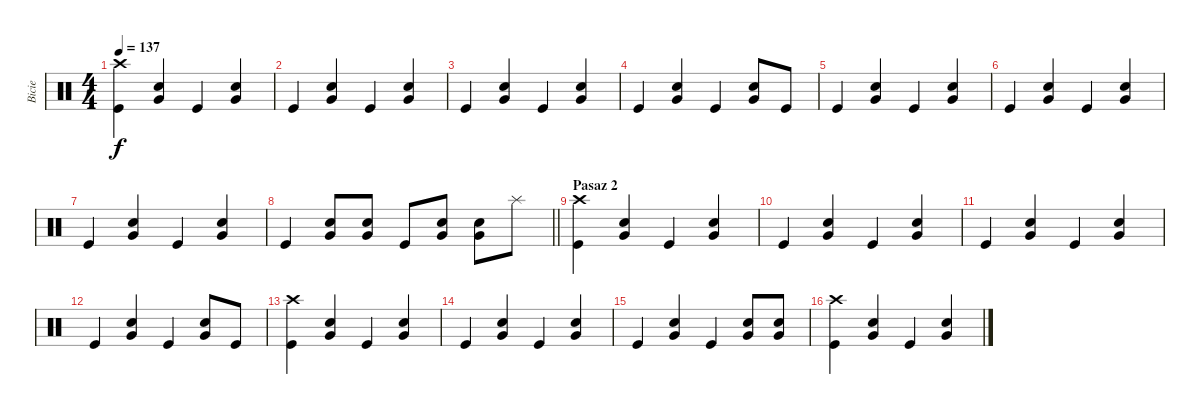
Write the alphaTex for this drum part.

\track ("Bicie" "Bicie") {instrument percussion}
\staff {score}
\articulation defaults
\ts (4 4)
\tempo 137
\clef neutral
\ks c
("Crash high (hit)" "Kick (hit)").4{dy f} ("Very Low Tom (hit)" "Snare (hit) 2").4 "Kick (hit)".4 ("Very Low Tom (hit)" "Snare (hit) 2").4 |
"Kick (hit)".4 ("Very Low Tom (hit)" "Snare (hit) 2").4 "Kick (hit)".4 ("Very Low Tom (hit)" "Snare (hit) 2").4 |
"Kick (hit)".4 ("Very Low Tom (hit)" "Snare (hit) 2").4 "Kick (hit)".4 ("Very Low Tom (hit)" "Snare (hit) 2").4 |
"Kick (hit)".4 ("Very Low Tom (hit)" "Snare (hit) 2").4 "Kick (hit)".4 ("Very Low Tom (hit)" "Snare (hit) 2").8 "Kick (hit)".8 |
"Kick (hit)".4 ("Very Low Tom (hit)" "Snare (hit) 2").4 "Kick (hit)".4 ("Very Low Tom (hit)" "Snare (hit) 2").4 |
"Kick (hit)".4 ("Very Low Tom (hit)" "Snare (hit) 2").4 "Kick (hit)".4 ("Very Low Tom (hit)" "Snare (hit) 2").4 |
"Kick (hit)".4 ("Very Low Tom (hit)" "Snare (hit) 2").4 "Kick (hit)".4 ("Very Low Tom (hit)" "Snare (hit) 2").4 |
\barLineRight lightlight "Kick (hit)".4
("Very Low Tom (hit)" "Snare (hit) 2").8 ("Very Low Tom (hit)" "Snare (hit) 2").8 "Kick (hit)".8 ("Very Low Tom (hit)" "Snare (hit) 2").8 ("Very Low Tom (hit)" "Snare (hit) 2").8 "Splash (hit)".8 |
\section ("" "Pasaz 2")
("Crash high (hit)" "Kick (hit)").4 ("Very Low Tom (hit)" "Snare (hit) 2").4 "Kick (hit)".4 ("Very Low Tom (hit)" "Snare (hit) 2").4 |
"Kick (hit)".4 ("Very Low Tom (hit)" "Snare (hit) 2").4 "Kick (hit)".4 ("Very Low Tom (hit)" "Snare (hit) 2").4 |
"Kick (hit)".4 ("Very Low Tom (hit)" "Snare (hit) 2").4 "Kick (hit)".4 ("Very Low Tom (hit)" "Snare (hit) 2").4 |
"Kick (hit)".4 ("Very Low Tom (hit)" "Snare (hit) 2").4 "Kick (hit)".4 ("Very Low Tom (hit)" "Snare (hit) 2").8 "Kick (hit)".8 |
("Crash high (hit)" "Kick (hit)").4 ("Very Low Tom (hit)" "Snare (hit) 2").4 "Kick (hit)".4 ("Very Low Tom (hit)" "Snare (hit) 2").4 |
"Kick (hit)".4 ("Very Low Tom (hit)" "Snare (hit) 2").4 "Kick (hit)".4 ("Very Low Tom (hit)" "Snare (hit) 2").4 |
"Kick (hit)".4 ("Very Low Tom (hit)" "Snare (hit) 2").4 "Kick (hit)".4 ("Very Low Tom (hit)" "Snare (hit) 2").8 ("Very Low Tom (hit)" "Snare (hit) 2").8 |
("Crash high (hit)" "Kick (hit)").4 ("Very Low Tom (hit)" "Snare (hit) 2").4 "Kick (hit)".4 ("Very Low Tom (hit)" "Snare (hit) 2").4
